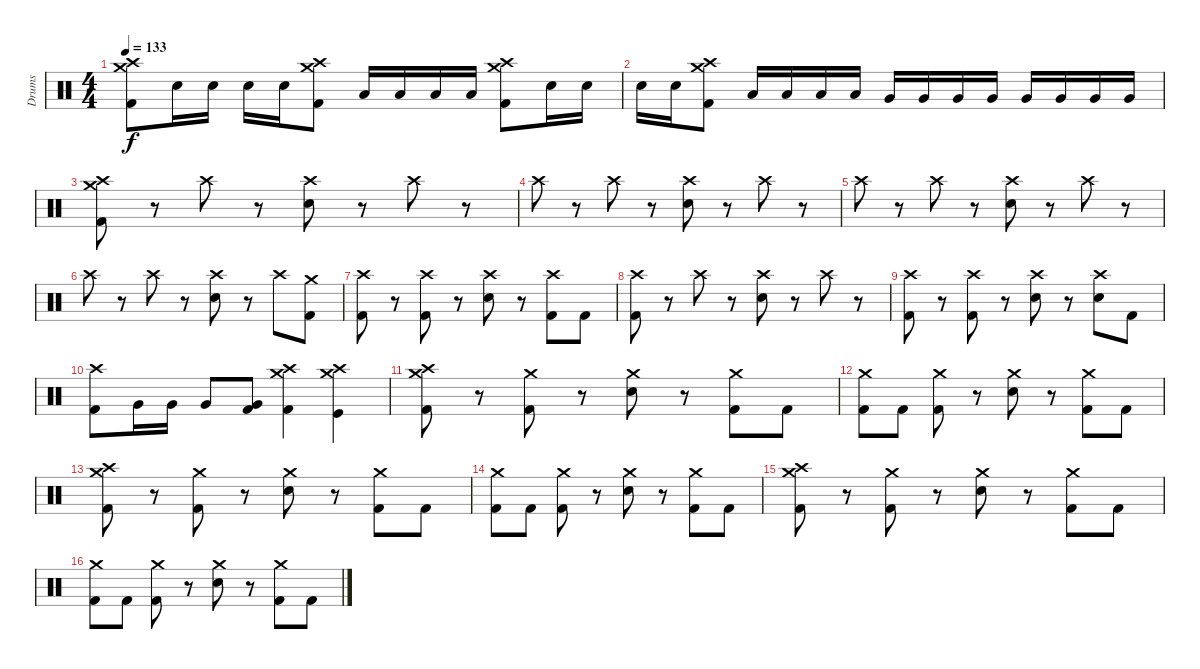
\track ("Drums" "Drums") {instrument percussion}
\staff {score}
\articulation defaults
\ts (4 4)
\tempo 133
\clef neutral
\ks c
("Crash high (hit)" "Crash medium (hit)" "Kick (hit) 2").8{dy f} "Electric Snare (hit)".16 "Electric Snare (hit)".16 "Electric Snare (hit)".16 "Electric Snare (hit)".16 ("Crash high (hit)" "Crash medium (hit)" "Kick (hit) 2").8 "Low Tom (hit)".16 "Low Tom (hit)".16 "Low Tom (hit)".16 "Low Tom (hit)".16 ("Crash high (hit)" "Crash medium (hit)" "Kick (hit) 2").8 "Electric Snare (hit)".16 "Electric Snare (hit)".16 |
"Electric Snare (hit)".16 "Electric Snare (hit)".16 ("Crash high (hit)" "Crash medium (hit)" "Kick (hit) 2").8 "Low Tom (hit)".16 "Low Tom (hit)".16 "Low Tom (hit)".16 "Low Tom (hit)".16 "Very Low Tom (hit)".16 "Very Low Tom (hit)".16 "Very Low Tom (hit)".16 "Very Low Tom (hit)".16 "Very Low Tom (hit)".16 "Very Low Tom (hit)".16 "Very Low Tom (hit)".16 "Very Low Tom (hit)".16 |
("Crash high (hit)" "Crash medium (hit)" "Kick (hit) 2").8 r.8 "Crash high (hit)".8 r.8 ("Crash high (hit)" "Electric Snare (hit)").8 r.8 "Crash high (hit)".8 r.8 |
"Crash high (hit)".8 r.8 "Crash high (hit)".8 r.8 ("Crash high (hit)" "Electric Snare (hit)").8 r.8 "Crash high (hit)".8 r.8 |
"Crash high (hit)".8 r.8 "Crash high (hit)".8 r.8 ("Crash high (hit)" "Electric Snare (hit)").8 r.8 "Crash high (hit)".8 r.8 |
"Crash high (hit)".8 r.8 "Crash high (hit)".8 r.8 ("Crash high (hit)" "Electric Snare (hit)").8 r.8 "Crash high (hit)".8 ("Crash medium (hit)" "Kick (hit) 2").8 |
("Crash high (hit)" "Kick (hit) 2").8 r.8 ("Crash high (hit)" "Kick (hit) 2").8 r.8 ("Crash high (hit)" "Electric Snare (hit)").8 r.8 ("Crash high (hit)" "Kick (hit) 2").8 "Kick (hit) 2".8 |
("Crash high (hit)" "Kick (hit) 2").8 r.8 "Crash high (hit)".8 r.8 ("Crash high (hit)" "Electric Snare (hit)").8 r.8 "Crash high (hit)".8 r.8 |
("Crash high (hit)" "Kick (hit) 2").8 r.8 ("Crash high (hit)" "Kick (hit) 2").8 r.8 ("Crash high (hit)" "Electric Snare (hit)").8 r.8 ("Crash high (hit)" "Electric Snare (hit)").8 "Kick (hit) 2".8 |
("Crash high (hit)" "Kick (hit) 2").8 "Very Low Tom (hit)".16 "Very Low Tom (hit)".16 "Very Low Tom (hit)".8 ("Very Low Tom (hit)" "Kick (hit) 2").8 ("Crash high (hit)" "Crash medium (hit)" "Kick (hit) 2").4 ("Crash high (hit)" "Crash medium (hit)" "Kick (hit)").4 |
("Crash high (hit)" "Crash medium (hit)" "Kick (hit) 2").8 r.8 ("Crash medium (hit)" "Kick (hit) 2").8 r.8 ("Crash medium (hit)" "Electric Snare (hit)").8 r.8 ("Crash medium (hit)" "Kick (hit) 2").8 "Kick (hit) 2".8 |
("Crash medium (hit)" "Kick (hit) 2").8 "Kick (hit) 2".8 ("Crash medium (hit)" "Kick (hit) 2").8 r.8 ("Crash medium (hit)" "Electric Snare (hit)").8 r.8 ("Crash medium (hit)" "Kick (hit) 2").8 "Kick (hit) 2".8 |
("Crash high (hit)" "Crash medium (hit)" "Kick (hit) 2").8 r.8 ("Crash medium (hit)" "Kick (hit) 2").8 r.8 ("Crash medium (hit)" "Electric Snare (hit)").8 r.8 ("Crash medium (hit)" "Kick (hit) 2").8 "Kick (hit) 2".8 |
("Crash medium (hit)" "Kick (hit) 2").8 "Kick (hit) 2".8 ("Crash medium (hit)" "Kick (hit) 2").8 r.8 ("Crash medium (hit)" "Electric Snare (hit)").8 r.8 ("Crash medium (hit)" "Kick (hit) 2").8 "Kick (hit) 2".8 |
("Crash high (hit)" "Crash medium (hit)" "Kick (hit) 2").8 r.8 ("Crash medium (hit)" "Kick (hit) 2").8 r.8 ("Crash medium (hit)" "Electric Snare (hit)").8 r.8 ("Crash medium (hit)" "Kick (hit) 2").8 "Kick (hit) 2".8 |
("Crash medium (hit)" "Kick (hit) 2").8 "Kick (hit) 2".8 ("Crash medium (hit)" "Kick (hit) 2").8 r.8 ("Crash medium (hit)" "Electric Snare (hit)").8 r.8 ("Crash medium (hit)" "Kick (hit) 2").8 "Kick (hit) 2".8
